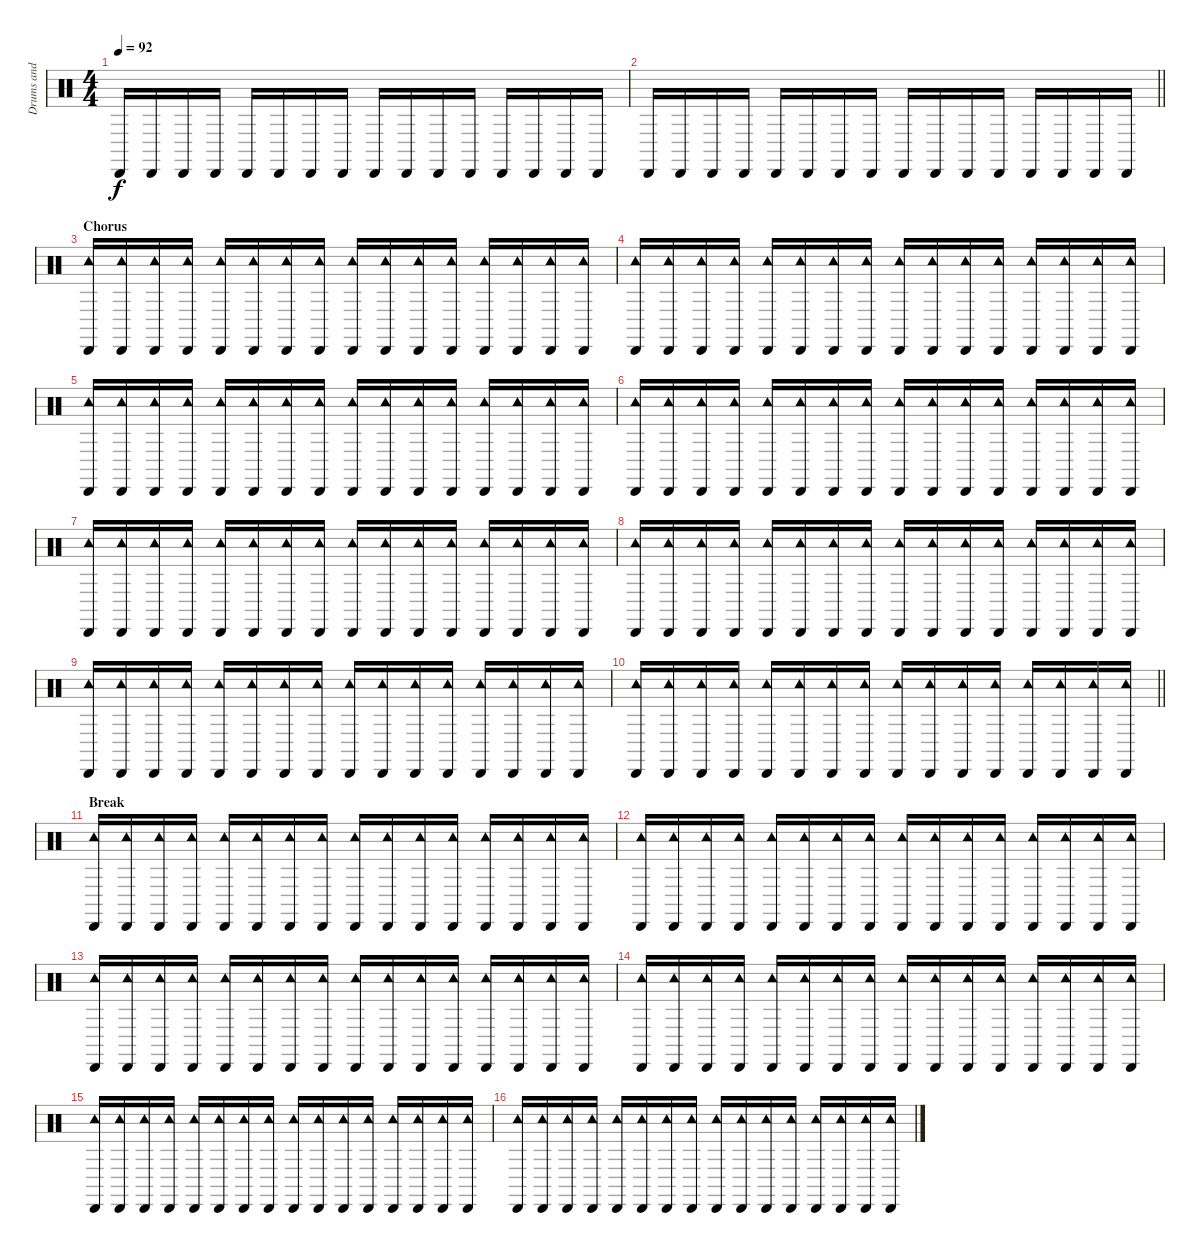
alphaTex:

\track ("Drums and Percussions" "Drums and ") {instrument percussion}
\staff {score}
\articulation defaults
\ts (4 4)
\tempo 92
\clef neutral
\ks c "Cabasa (hit)".16{dy f} "Cabasa (hit)".16 "Cabasa (hit)".16 "Cabasa (hit)".16 "Cabasa (hit)".16 "Cabasa (hit)".16 "Cabasa (hit)".16 "Cabasa (hit)".16 "Cabasa (hit)".16 "Cabasa (hit)".16 "Cabasa (hit)".16 "Cabasa (hit)".16 "Cabasa (hit)".16 "Cabasa (hit)".16 "Cabasa (hit)".16 "Cabasa (hit)".16
|
\barLineRight lightlight "Cabasa (hit)".16 "Cabasa (hit)".16 "Cabasa (hit)".16 "Cabasa (hit)".16 "Cabasa (hit)".16 "Cabasa (hit)".16 "Cabasa (hit)".16 "Cabasa (hit)".16 "Cabasa (hit)".16 "Cabasa (hit)".16 "Cabasa (hit)".16 "Cabasa (hit)".16 "Cabasa (hit)".16 "Cabasa (hit)".16 "Cabasa (hit)".16 "Cabasa (hit)".16
|
\section ("" "Chorus")
("Cabasa (hit)" "Tambourine (hit)").16 ("Cabasa (hit)" "Tambourine (hit)").16 ("Cabasa (hit)" "Tambourine (hit)").16 ("Cabasa (hit)" "Tambourine (hit)").16 ("Cabasa (hit)" "Tambourine (hit)").16 ("Cabasa (hit)" "Tambourine (hit)").16 ("Cabasa (hit)" "Tambourine (hit)").16 ("Cabasa (hit)" "Tambourine (hit)").16 ("Cabasa (hit)" "Tambourine (hit)").16 ("Cabasa (hit)" "Tambourine (hit)").16 ("Cabasa (hit)" "Tambourine (hit)").16 ("Cabasa (hit)" "Tambourine (hit)").16 ("Cabasa (hit)" "Tambourine (hit)").16 ("Cabasa (hit)" "Tambourine (hit)").16 ("Cabasa (hit)" "Tambourine (hit)").16 ("Cabasa (hit)" "Tambourine (hit)").16 |
("Cabasa (hit)" "Tambourine (hit)").16 ("Cabasa (hit)" "Tambourine (hit)").16 ("Cabasa (hit)" "Tambourine (hit)").16 ("Cabasa (hit)" "Tambourine (hit)").16 ("Cabasa (hit)" "Tambourine (hit)").16 ("Cabasa (hit)" "Tambourine (hit)").16 ("Cabasa (hit)" "Tambourine (hit)").16 ("Cabasa (hit)" "Tambourine (hit)").16 ("Cabasa (hit)" "Tambourine (hit)").16 ("Cabasa (hit)" "Tambourine (hit)").16 ("Cabasa (hit)" "Tambourine (hit)").16 ("Cabasa (hit)" "Tambourine (hit)").16 ("Cabasa (hit)" "Tambourine (hit)").16 ("Cabasa (hit)" "Tambourine (hit)").16 ("Cabasa (hit)" "Tambourine (hit)").16 ("Cabasa (hit)" "Tambourine (hit)").16 |
("Cabasa (hit)" "Tambourine (hit)").16 ("Cabasa (hit)" "Tambourine (hit)").16 ("Cabasa (hit)" "Tambourine (hit)").16 ("Cabasa (hit)" "Tambourine (hit)").16 ("Cabasa (hit)" "Tambourine (hit)").16 ("Cabasa (hit)" "Tambourine (hit)").16 ("Cabasa (hit)" "Tambourine (hit)").16 ("Cabasa (hit)" "Tambourine (hit)").16 ("Cabasa (hit)" "Tambourine (hit)").16 ("Cabasa (hit)" "Tambourine (hit)").16 ("Cabasa (hit)" "Tambourine (hit)").16 ("Cabasa (hit)" "Tambourine (hit)").16 ("Cabasa (hit)" "Tambourine (hit)").16 ("Cabasa (hit)" "Tambourine (hit)").16 ("Cabasa (hit)" "Tambourine (hit)").16 ("Cabasa (hit)" "Tambourine (hit)").16 |
("Cabasa (hit)" "Tambourine (hit)").16 ("Cabasa (hit)" "Tambourine (hit)").16 ("Cabasa (hit)" "Tambourine (hit)").16 ("Cabasa (hit)" "Tambourine (hit)").16 ("Cabasa (hit)" "Tambourine (hit)").16 ("Cabasa (hit)" "Tambourine (hit)").16 ("Cabasa (hit)" "Tambourine (hit)").16 ("Cabasa (hit)" "Tambourine (hit)").16 ("Cabasa (hit)" "Tambourine (hit)").16 ("Cabasa (hit)" "Tambourine (hit)").16 ("Cabasa (hit)" "Tambourine (hit)").16 ("Cabasa (hit)" "Tambourine (hit)").16 ("Cabasa (hit)" "Tambourine (hit)").16 ("Cabasa (hit)" "Tambourine (hit)").16 ("Cabasa (hit)" "Tambourine (hit)").16 ("Cabasa (hit)" "Tambourine (hit)").16 |
("Cabasa (hit)" "Tambourine (hit)").16 ("Cabasa (hit)" "Tambourine (hit)").16 ("Cabasa (hit)" "Tambourine (hit)").16 ("Cabasa (hit)" "Tambourine (hit)").16 ("Cabasa (hit)" "Tambourine (hit)").16 ("Cabasa (hit)" "Tambourine (hit)").16 ("Cabasa (hit)" "Tambourine (hit)").16 ("Cabasa (hit)" "Tambourine (hit)").16 ("Cabasa (hit)" "Tambourine (hit)").16 ("Cabasa (hit)" "Tambourine (hit)").16 ("Cabasa (hit)" "Tambourine (hit)").16 ("Cabasa (hit)" "Tambourine (hit)").16 ("Cabasa (hit)" "Tambourine (hit)").16 ("Cabasa (hit)" "Tambourine (hit)").16 ("Cabasa (hit)" "Tambourine (hit)").16 ("Cabasa (hit)" "Tambourine (hit)").16 |
("Cabasa (hit)" "Tambourine (hit)").16 ("Cabasa (hit)" "Tambourine (hit)").16 ("Cabasa (hit)" "Tambourine (hit)").16 ("Cabasa (hit)" "Tambourine (hit)").16 ("Cabasa (hit)" "Tambourine (hit)").16 ("Cabasa (hit)" "Tambourine (hit)").16 ("Cabasa (hit)" "Tambourine (hit)").16 ("Cabasa (hit)" "Tambourine (hit)").16 ("Cabasa (hit)" "Tambourine (hit)").16 ("Cabasa (hit)" "Tambourine (hit)").16 ("Cabasa (hit)" "Tambourine (hit)").16 ("Cabasa (hit)" "Tambourine (hit)").16 ("Cabasa (hit)" "Tambourine (hit)").16 ("Cabasa (hit)" "Tambourine (hit)").16 ("Cabasa (hit)" "Tambourine (hit)").16 ("Cabasa (hit)" "Tambourine (hit)").16 |
("Cabasa (hit)" "Tambourine (hit)").16 ("Cabasa (hit)" "Tambourine (hit)").16 ("Cabasa (hit)" "Tambourine (hit)").16 ("Cabasa (hit)" "Tambourine (hit)").16 ("Cabasa (hit)" "Tambourine (hit)").16 ("Cabasa (hit)" "Tambourine (hit)").16 ("Cabasa (hit)" "Tambourine (hit)").16 ("Cabasa (hit)" "Tambourine (hit)").16 ("Cabasa (hit)" "Tambourine (hit)").16 ("Cabasa (hit)" "Tambourine (hit)").16 ("Cabasa (hit)" "Tambourine (hit)").16 ("Cabasa (hit)" "Tambourine (hit)").16 ("Cabasa (hit)" "Tambourine (hit)").16 ("Cabasa (hit)" "Tambourine (hit)").16 ("Cabasa (hit)" "Tambourine (hit)").16 ("Cabasa (hit)" "Tambourine (hit)").16 |
\barLineRight lightlight
("Cabasa (hit)" "Tambourine (hit)").16 ("Cabasa (hit)" "Tambourine (hit)").16 ("Cabasa (hit)" "Tambourine (hit)").16 ("Cabasa (hit)" "Tambourine (hit)").16 ("Cabasa (hit)" "Tambourine (hit)").16 ("Cabasa (hit)" "Tambourine (hit)").16 ("Cabasa (hit)" "Tambourine (hit)").16 ("Cabasa (hit)" "Tambourine (hit)").16 ("Cabasa (hit)" "Tambourine (hit)").16 ("Cabasa (hit)" "Tambourine (hit)").16 ("Cabasa (hit)" "Tambourine (hit)").16 ("Cabasa (hit)" "Tambourine (hit)").16 ("Cabasa (hit)" "Tambourine (hit)").16 ("Cabasa (hit)" "Tambourine (hit)").16 ("Cabasa (hit)" "Tambourine (hit)").16 ("Cabasa (hit)" "Tambourine (hit)").16 |
\section ("" "Break")
("Cabasa (hit)" "Tambourine (hit)").16 ("Cabasa (hit)" "Tambourine (hit)").16 ("Cabasa (hit)" "Tambourine (hit)").16 ("Cabasa (hit)" "Tambourine (hit)").16 ("Cabasa (hit)" "Tambourine (hit)").16 ("Cabasa (hit)" "Tambourine (hit)").16 ("Cabasa (hit)" "Tambourine (hit)").16 ("Cabasa (hit)" "Tambourine (hit)").16 ("Cabasa (hit)" "Tambourine (hit)").16 ("Cabasa (hit)" "Tambourine (hit)").16 ("Cabasa (hit)" "Tambourine (hit)").16 ("Cabasa (hit)" "Tambourine (hit)").16 ("Cabasa (hit)" "Tambourine (hit)").16 ("Cabasa (hit)" "Tambourine (hit)").16 ("Cabasa (hit)" "Tambourine (hit)").16 ("Cabasa (hit)" "Tambourine (hit)").16 |
("Cabasa (hit)" "Tambourine (hit)").16 ("Cabasa (hit)" "Tambourine (hit)").16 ("Cabasa (hit)" "Tambourine (hit)").16 ("Cabasa (hit)" "Tambourine (hit)").16 ("Cabasa (hit)" "Tambourine (hit)").16 ("Cabasa (hit)" "Tambourine (hit)").16 ("Cabasa (hit)" "Tambourine (hit)").16 ("Cabasa (hit)" "Tambourine (hit)").16 ("Cabasa (hit)" "Tambourine (hit)").16 ("Cabasa (hit)" "Tambourine (hit)").16 ("Cabasa (hit)" "Tambourine (hit)").16 ("Cabasa (hit)" "Tambourine (hit)").16 ("Cabasa (hit)" "Tambourine (hit)").16 ("Cabasa (hit)" "Tambourine (hit)").16 ("Cabasa (hit)" "Tambourine (hit)").16 ("Cabasa (hit)" "Tambourine (hit)").16 |
("Cabasa (hit)" "Tambourine (hit)").16 ("Cabasa (hit)" "Tambourine (hit)").16 ("Cabasa (hit)" "Tambourine (hit)").16 ("Cabasa (hit)" "Tambourine (hit)").16 ("Cabasa (hit)" "Tambourine (hit)").16 ("Cabasa (hit)" "Tambourine (hit)").16 ("Cabasa (hit)" "Tambourine (hit)").16 ("Cabasa (hit)" "Tambourine (hit)").16 ("Cabasa (hit)" "Tambourine (hit)").16 ("Cabasa (hit)" "Tambourine (hit)").16 ("Cabasa (hit)" "Tambourine (hit)").16 ("Cabasa (hit)" "Tambourine (hit)").16 ("Cabasa (hit)" "Tambourine (hit)").16 ("Cabasa (hit)" "Tambourine (hit)").16 ("Cabasa (hit)" "Tambourine (hit)").16 ("Cabasa (hit)" "Tambourine (hit)").16 |
("Cabasa (hit)" "Tambourine (hit)").16 ("Cabasa (hit)" "Tambourine (hit)").16 ("Cabasa (hit)" "Tambourine (hit)").16 ("Cabasa (hit)" "Tambourine (hit)").16 ("Cabasa (hit)" "Tambourine (hit)").16 ("Cabasa (hit)" "Tambourine (hit)").16 ("Cabasa (hit)" "Tambourine (hit)").16 ("Cabasa (hit)" "Tambourine (hit)").16 ("Cabasa (hit)" "Tambourine (hit)").16 ("Cabasa (hit)" "Tambourine (hit)").16 ("Cabasa (hit)" "Tambourine (hit)").16 ("Cabasa (hit)" "Tambourine (hit)").16 ("Cabasa (hit)" "Tambourine (hit)").16 ("Cabasa (hit)" "Tambourine (hit)").16 ("Cabasa (hit)" "Tambourine (hit)").16 ("Cabasa (hit)" "Tambourine (hit)").16 |
("Cabasa (hit)" "Tambourine (hit)").16 ("Cabasa (hit)" "Tambourine (hit)").16 ("Cabasa (hit)" "Tambourine (hit)").16 ("Cabasa (hit)" "Tambourine (hit)").16 ("Cabasa (hit)" "Tambourine (hit)").16 ("Cabasa (hit)" "Tambourine (hit)").16 ("Cabasa (hit)" "Tambourine (hit)").16 ("Cabasa (hit)" "Tambourine (hit)").16 ("Cabasa (hit)" "Tambourine (hit)").16 ("Cabasa (hit)" "Tambourine (hit)").16 ("Cabasa (hit)" "Tambourine (hit)").16 ("Cabasa (hit)" "Tambourine (hit)").16 ("Cabasa (hit)" "Tambourine (hit)").16 ("Cabasa (hit)" "Tambourine (hit)").16 ("Cabasa (hit)" "Tambourine (hit)").16 ("Cabasa (hit)" "Tambourine (hit)").16 |
("Cabasa (hit)" "Tambourine (hit)").16 ("Cabasa (hit)" "Tambourine (hit)").16 ("Cabasa (hit)" "Tambourine (hit)").16 ("Cabasa (hit)" "Tambourine (hit)").16 ("Cabasa (hit)" "Tambourine (hit)").16 ("Cabasa (hit)" "Tambourine (hit)").16 ("Cabasa (hit)" "Tambourine (hit)").16 ("Cabasa (hit)" "Tambourine (hit)").16 ("Cabasa (hit)" "Tambourine (hit)").16 ("Cabasa (hit)" "Tambourine (hit)").16 ("Cabasa (hit)" "Tambourine (hit)").16 ("Cabasa (hit)" "Tambourine (hit)").16 ("Cabasa (hit)" "Tambourine (hit)").16 ("Cabasa (hit)" "Tambourine (hit)").16 ("Cabasa (hit)" "Tambourine (hit)").16 ("Cabasa (hit)" "Tambourine (hit)").16
